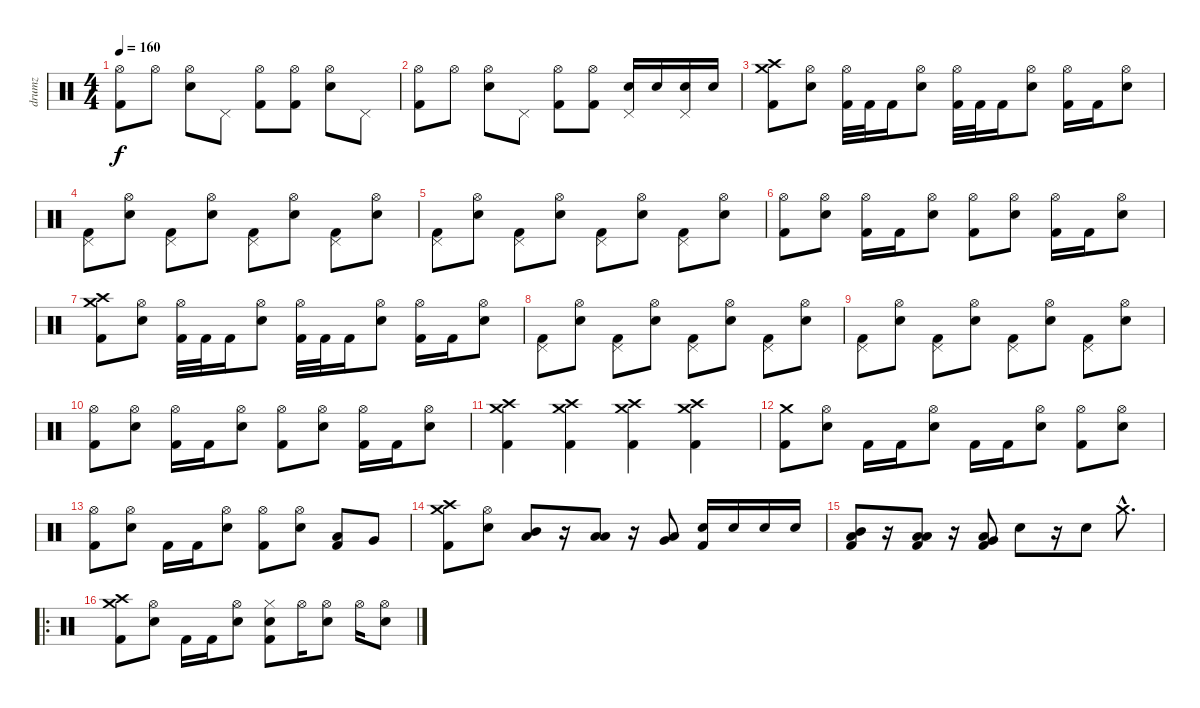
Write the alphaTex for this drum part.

\track ("drumz" "drumz") {instrument percussion}
\staff {score}
\articulation defaults
\ts (4 4)
\tempo 160
\clef neutral
\ks c
("Hi-Hat (open)" "Kick (hit) 2").8{dy f} "Hi-Hat (open)".8 ("Hi-Hat (open)" "Snare (hit) 2").8 "Pedal Hi-Hat (hit)".8 ("Hi-Hat (open)" "Kick (hit) 2").8 ("Hi-Hat (open)" "Kick (hit) 2").8 ("Hi-Hat (open)" "Snare (hit) 2").8 "Pedal Hi-Hat (hit)".8 |
("Hi-Hat (open)" "Kick (hit) 2").8 "Hi-Hat (open)".8 ("Hi-Hat (open)" "Snare (hit) 2").8 "Pedal Hi-Hat (hit)".8 ("Hi-Hat (open)" "Kick (hit) 2").8 ("Hi-Hat (open)" "Kick (hit) 2").8 ("Pedal Hi-Hat (hit)" "Snare (hit) 2").16 "Snare (hit) 2".16 ("Pedal Hi-Hat (hit)" "Snare (hit) 2").16 "Snare (hit) 2".16 |
("Crash medium (hit)" "Crash high (hit)" "Kick (hit) 2").8 ("Hi-Hat (open)" "Snare (hit) 2").8 ("Hi-Hat (open)" "Kick (hit) 2").32 "Kick (hit) 2".32 "Kick (hit) 2".16 ("Hi-Hat (open)" "Snare (hit) 2").8 ("Hi-Hat (open)" "Kick (hit) 2").32 "Kick (hit) 2".32 "Kick (hit) 2".16 ("Hi-Hat (open)" "Snare (hit) 2").8 ("Hi-Hat (open)" "Kick (hit) 2").16 "Kick (hit) 2".16 ("Hi-Hat (open)" "Snare (hit) 2").8 |
("Pedal Hi-Hat (hit)" "Kick (hit) 2").8 ("Hi-Hat (open)" "Snare (hit) 2").8 ("Pedal Hi-Hat (hit)" "Kick (hit) 2").8 ("Hi-Hat (open)" "Snare (hit) 2").8 ("Pedal Hi-Hat (hit)" "Kick (hit) 2").8 ("Hi-Hat (open)" "Snare (hit) 2").8 ("Pedal Hi-Hat (hit)" "Kick (hit) 2").8 ("Hi-Hat (open)" "Snare (hit) 2").8 |
("Pedal Hi-Hat (hit)" "Kick (hit) 2").8 ("Hi-Hat (open)" "Snare (hit) 2").8 ("Pedal Hi-Hat (hit)" "Kick (hit) 2").8 ("Hi-Hat (open)" "Snare (hit) 2").8 ("Pedal Hi-Hat (hit)" "Kick (hit) 2").8 ("Hi-Hat (open)" "Snare (hit) 2").8 ("Pedal Hi-Hat (hit)" "Kick (hit) 2").8 ("Hi-Hat (open)" "Snare (hit) 2").8 |
("Hi-Hat (open)" "Kick (hit) 2").8 ("Hi-Hat (open)" "Snare (hit) 2").8 ("Hi-Hat (open)" "Kick (hit) 2").16 "Kick (hit) 2".16 ("Hi-Hat (open)" "Snare (hit) 2").8 ("Hi-Hat (open)" "Kick (hit) 2").8 ("Hi-Hat (open)" "Snare (hit) 2").8 ("Hi-Hat (open)" "Kick (hit) 2").16 "Kick (hit) 2".16 ("Hi-Hat (open)" "Snare (hit) 2").8 |
("Crash medium (hit)" "Crash high (hit)" "Kick (hit) 2").8 ("Hi-Hat (open)" "Snare (hit) 2").8 ("Hi-Hat (open)" "Kick (hit) 2").32 "Kick (hit) 2".32 "Kick (hit) 2".16 ("Hi-Hat (open)" "Snare (hit) 2").8 ("Hi-Hat (open)" "Kick (hit) 2").32 "Kick (hit) 2".32 "Kick (hit) 2".16 ("Hi-Hat (open)" "Snare (hit) 2").8 ("Hi-Hat (open)" "Kick (hit) 2").16 "Kick (hit) 2".16 ("Hi-Hat (open)" "Snare (hit) 2").8 |
("Pedal Hi-Hat (hit)" "Kick (hit) 2").8 ("Hi-Hat (open)" "Snare (hit) 2").8 ("Pedal Hi-Hat (hit)" "Kick (hit) 2").8 ("Hi-Hat (open)" "Snare (hit) 2").8 ("Pedal Hi-Hat (hit)" "Kick (hit) 2").8 ("Hi-Hat (open)" "Snare (hit) 2").8 ("Pedal Hi-Hat (hit)" "Kick (hit) 2").8 ("Hi-Hat (open)" "Snare (hit) 2").8 |
("Pedal Hi-Hat (hit)" "Kick (hit) 2").8 ("Hi-Hat (open)" "Snare (hit) 2").8 ("Pedal Hi-Hat (hit)" "Kick (hit) 2").8 ("Hi-Hat (open)" "Snare (hit) 2").8 ("Pedal Hi-Hat (hit)" "Kick (hit) 2").8 ("Hi-Hat (open)" "Snare (hit) 2").8 ("Pedal Hi-Hat (hit)" "Kick (hit) 2").8 ("Hi-Hat (open)" "Snare (hit) 2").8 |
("Hi-Hat (open)" "Kick (hit) 2").8 ("Hi-Hat (open)" "Snare (hit) 2").8 ("Hi-Hat (open)" "Kick (hit) 2").16 "Kick (hit) 2".16 ("Hi-Hat (open)" "Snare (hit) 2").8 ("Hi-Hat (open)" "Kick (hit) 2").8 ("Hi-Hat (open)" "Snare (hit) 2").8 ("Hi-Hat (open)" "Kick (hit) 2").16 "Kick (hit) 2".16 ("Hi-Hat (open)" "Snare (hit) 2").8 |
("Crash medium (hit)" "Crash high (hit)" "Kick (hit) 2").4 ("Crash medium (hit)" "Crash high (hit)" "Kick (hit) 2").4 ("Crash medium (hit)" "Crash high (hit)" "Kick (hit) 2").4 ("Crash medium (hit)" "Crash high (hit)" "Kick (hit) 2").4 |
("Crash medium (hit)" "Kick (hit) 2").8 ("Hi-Hat (open)" "Snare (hit) 2").8 "Kick (hit) 2".16 "Kick (hit) 2".16 ("Hi-Hat (open)" "Snare (hit) 2").8 "Kick (hit) 2".16 "Kick (hit) 2".16 ("Hi-Hat (open)" "Snare (hit) 2").8 ("Hi-Hat (open)" "Kick (hit) 2").8 ("Hi-Hat (open)" "Snare (hit) 2").8 |
("Hi-Hat (open)" "Kick (hit) 2").8 ("Hi-Hat (open)" "Snare (hit) 2").8 "Kick (hit) 2".16 "Kick (hit) 2".16 ("Hi-Hat (open)" "Snare (hit) 2").8 ("Hi-Hat (open)" "Kick (hit) 2").8 ("Hi-Hat (open)" "Snare (hit) 2").8 ("Low Tom (hit)" "Kick (hit) 2").8 "Very Low Tom (hit)".8 |
("Crash high (hit)" "Crash medium (hit)" "Kick (hit) 2").8 ("Hi-Hat (open)" "Snare (hit) 2").8 ("Mid Tom (hit)" "Low Floor Tom (hit)").8 r.16 ("Low Tom (hit)" "Low Floor Tom (hit)").8 r.16 ("Very Low Tom (hit)" "Low Floor Tom (hit)").8 ("Snare (hit) 2" "Kick (hit) 2").16 "Snare (hit) 2".16 "Snare (hit) 2".16 "Snare (hit) 2".16 |
("Mid Tom (hit)" "Low Floor Tom (hit)" "Kick (hit) 2").8 r.16 ("Low Tom (hit)" "Low Floor Tom (hit)" "Kick (hit) 2").8 r.16 ("Very Low Tom (hit)" "Low Floor Tom (hit)" "Kick (hit) 2").8 "Snare (hit) 2".8 r.16 "Snare (hit) 2".8 "Crash medium (hit)"{hac}.8{d} |
\ro
("Crash medium (hit)" "Crash high (hit)" "Kick (hit) 2").8 ("Hi-Hat (open)" "Snare (hit) 2").8 "Kick (hit) 2".16 "Kick (hit) 2".16 ("Hi-Hat (open)" "Snare (hit) 2").8 ("Hi-Hat (closed)" "Snare (hit) 2" "Kick (hit) 2").8 "Hi-Hat (open)".16 ("Hi-Hat (open)" "Snare (hit) 2").8 "Hi-Hat (open)".16 ("Hi-Hat (open)" "Snare (hit) 2").8
